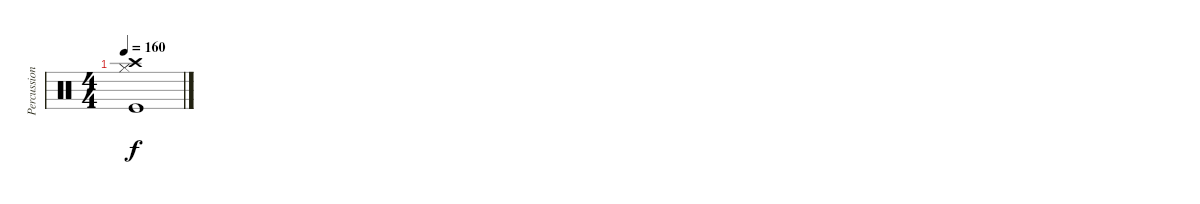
\track ("Percussions" "Percussion") {instrument percussion}
\staff {score}
\articulation defaults
\ts (4 4)
\tempo 160
\clef neutral
\ks c
("Kick (hit)" "Hi-Hat (closed)" "Crash high (hit)").1{dy f}
